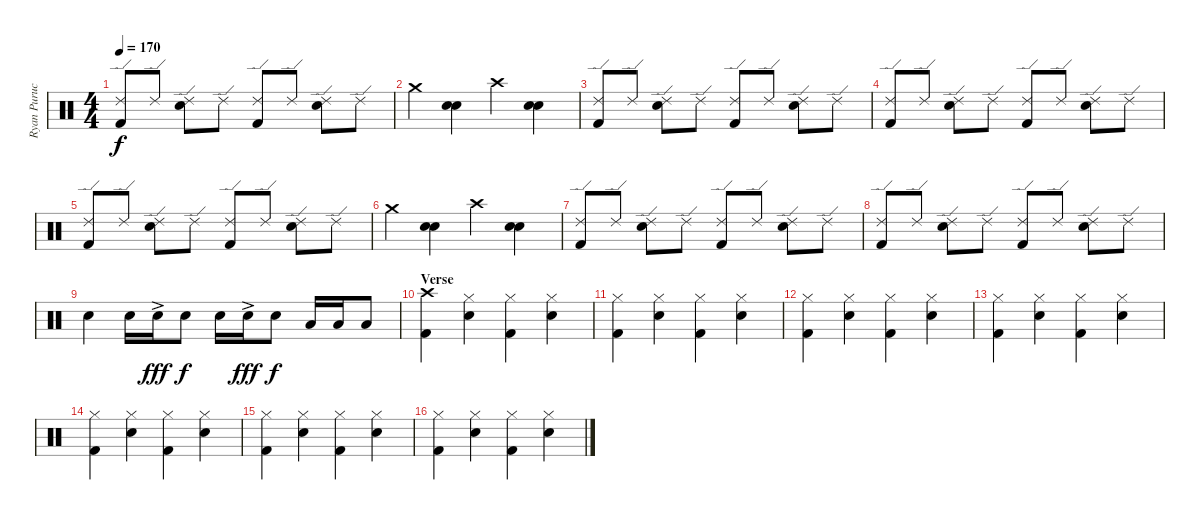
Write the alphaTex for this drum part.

\track ("Ryan Purucker" "Ryan Puruc") {instrument percussion}
\staff {score}
\articulation defaults
\ts (4 4)
\tempo 170
\clef neutral
\ks c
("Ride (edge) 2" "Kick (hit) 2").8{dy f} "Ride (edge) 2".8 ("Ride (edge) 2" "Snare (hit) 2").8 "Ride (edge) 2".8 ("Ride (edge) 2" "Kick (hit) 2").8 "Ride (edge) 2".8 ("Ride (edge) 2" "Snare (hit) 2").8 "Ride (edge) 2".8 |
"Crash medium (hit)".4 ("Snare (hit) 2" "Snare (hit) 2").4 "Crash high (hit)".4 ("Snare (hit) 2" "Snare (hit) 2").4 |
("Ride (edge) 2" "Kick (hit) 2").8 "Ride (edge) 2".8 ("Ride (edge) 2" "Snare (hit) 2").8 "Ride (edge) 2".8 ("Ride (edge) 2" "Kick (hit) 2").8 "Ride (edge) 2".8 ("Ride (edge) 2" "Snare (hit) 2").8 "Ride (edge) 2".8 |
("Ride (edge) 2" "Kick (hit) 2").8 "Ride (edge) 2".8 ("Ride (edge) 2" "Snare (hit) 2").8 "Ride (edge) 2".8 ("Ride (edge) 2" "Kick (hit) 2").8 "Ride (edge) 2".8 ("Ride (edge) 2" "Snare (hit) 2").8 "Ride (edge) 2".8 |
("Ride (edge) 2" "Kick (hit) 2").8 "Ride (edge) 2".8 ("Ride (edge) 2" "Snare (hit) 2").8 "Ride (edge) 2".8 ("Ride (edge) 2" "Kick (hit) 2").8 "Ride (edge) 2".8 ("Ride (edge) 2" "Snare (hit) 2").8 "Ride (edge) 2".8 |
"Crash medium (hit)".4 ("Snare (hit) 2" "Snare (hit) 2").4 "Crash high (hit)".4 ("Snare (hit) 2" "Snare (hit) 2").4 |
("Ride (edge) 2" "Kick (hit) 2").8 "Ride (edge) 2".8 ("Ride (edge) 2" "Snare (hit) 2").8 "Ride (edge) 2".8 ("Ride (edge) 2" "Kick (hit) 2").8 "Ride (edge) 2".8 ("Ride (edge) 2" "Snare (hit) 2").8 "Ride (edge) 2".8 |
("Ride (edge) 2" "Kick (hit) 2").8 "Ride (edge) 2".8 ("Ride (edge) 2" "Snare (hit) 2").8 "Ride (edge) 2".8 ("Ride (edge) 2" "Kick (hit) 2").8 "Ride (edge) 2".8 ("Ride (edge) 2" "Snare (hit) 2").8 "Ride (edge) 2".8 |
"Electric Snare (hit)".4 "Electric Snare (hit)".16 "Electric Snare (hit)"{ac}.16{dy fff} "Electric Snare (hit)".8{dy f} "Electric Snare (hit)".16 "Electric Snare (hit)"{ac}.16{dy fff} "Electric Snare (hit)".8{dy f} "Low Tom (hit)".16 "Low Tom (hit)".16 "Low Tom (hit)".8 |
\section ("" "Verse")
("Crash high (hit)" "Kick (hit) 2").4 ("Hi-Hat (closed)" "Snare (hit) 2").4 ("Hi-Hat (closed)" "Kick (hit) 2").4 ("Hi-Hat (closed)" "Snare (hit) 2").4 |
("Hi-Hat (closed)" "Kick (hit) 2").4 ("Hi-Hat (closed)" "Snare (hit) 2").4 ("Hi-Hat (closed)" "Kick (hit) 2").4 ("Hi-Hat (closed)" "Snare (hit) 2").4 |
("Hi-Hat (closed)" "Kick (hit) 2").4 ("Hi-Hat (closed)" "Snare (hit) 2").4 ("Hi-Hat (closed)" "Kick (hit) 2").4 ("Hi-Hat (closed)" "Snare (hit) 2").4 |
("Hi-Hat (closed)" "Kick (hit) 2").4 ("Hi-Hat (closed)" "Snare (hit) 2").4 ("Hi-Hat (closed)" "Kick (hit) 2").4 ("Hi-Hat (closed)" "Snare (hit) 2").4 |
("Hi-Hat (closed)" "Kick (hit) 2").4 ("Hi-Hat (closed)" "Snare (hit) 2").4 ("Hi-Hat (closed)" "Kick (hit) 2").4 ("Hi-Hat (closed)" "Snare (hit) 2").4 |
("Hi-Hat (closed)" "Kick (hit) 2").4 ("Hi-Hat (closed)" "Snare (hit) 2").4 ("Hi-Hat (closed)" "Kick (hit) 2").4 ("Hi-Hat (closed)" "Snare (hit) 2").4 |
("Hi-Hat (closed)" "Kick (hit) 2").4 ("Hi-Hat (closed)" "Snare (hit) 2").4 ("Hi-Hat (closed)" "Kick (hit) 2").4 ("Hi-Hat (closed)" "Snare (hit) 2").4
